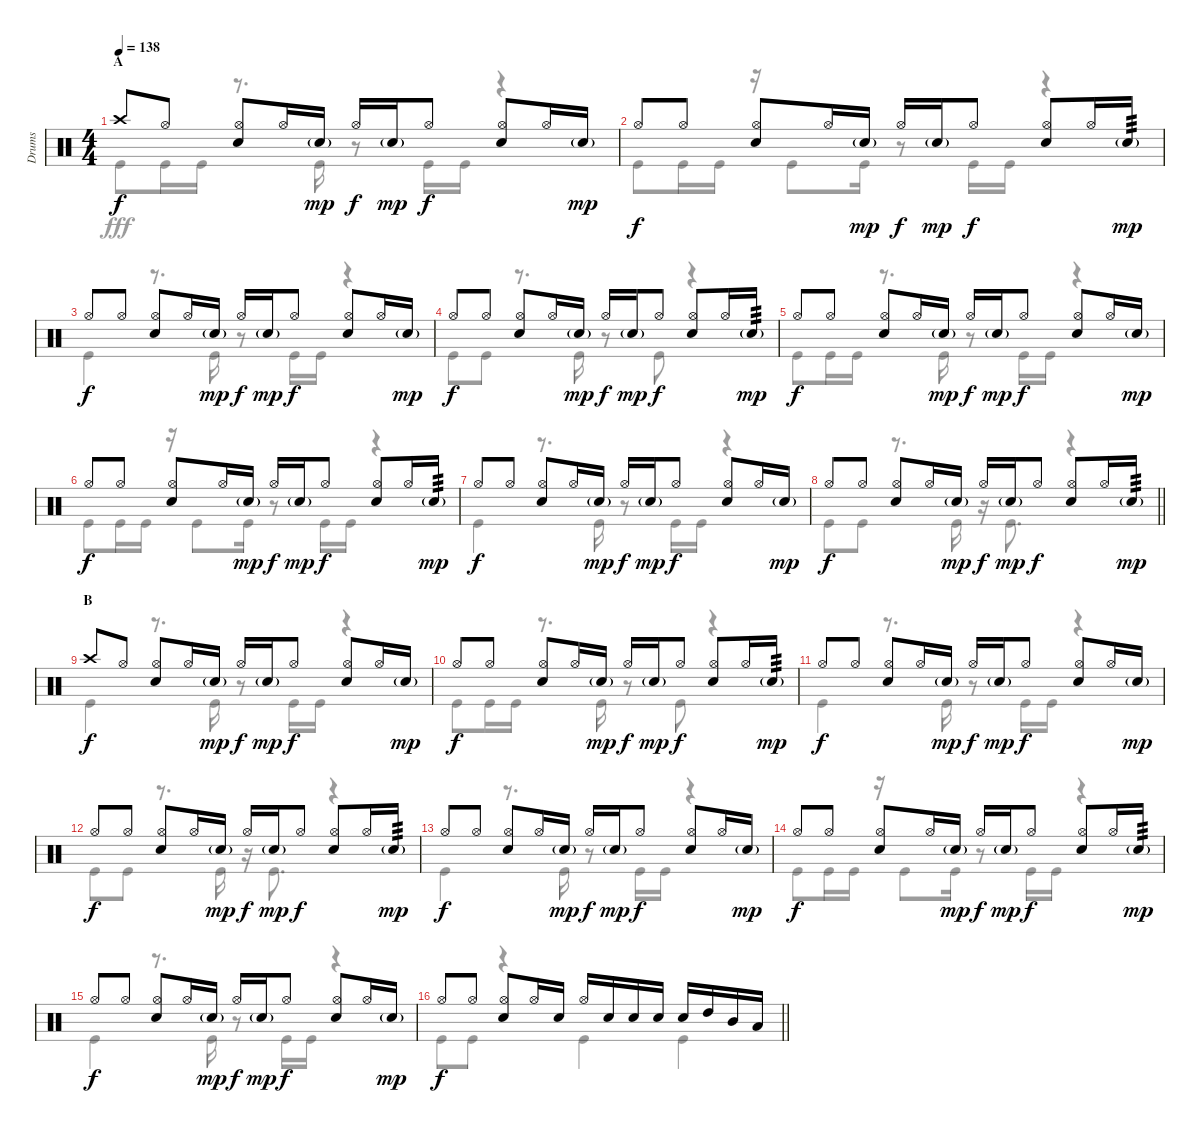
\track ("Drums" "Drums") {instrument percussion}
\staff {score}
\articulation defaults
\voice
\ts (4 4)
\section ("" "A")
\tempo 138
\clef neutral
\ks c "Crash high (hit)".8{dy f} "Hi-Hat (open)".8
("Hi-Hat (open)" "Snare (hit) 2").8 "Hi-Hat (open)".16 "Snare (hit) 2"{g}.16{dy mp} "Hi-Hat (open)".16{dy f} "Snare (hit) 2"{g}.16{dy mp} "Hi-Hat (open)".8{dy f} ("Hi-Hat (open)" "Snare (hit) 2").8 "Hi-Hat (open)".16 "Snare (hit) 2"{g}.16{dy mp} |
"Hi-Hat (open)".8{dy f} "Hi-Hat (open)".8 ("Hi-Hat (open)" "Snare (hit) 2").8 "Hi-Hat (open)".16 "Snare (hit) 2"{g}.16{dy mp} "Hi-Hat (open)".16{dy f} "Snare (hit) 2"{g}.16{dy mp} "Hi-Hat (open)".8{dy f} ("Hi-Hat (open)" "Snare (hit) 2").8 "Hi-Hat (open)".16 "Snare (hit) 2"{g}.16{tp 3 dy mp} |
"Hi-Hat (open)".8{dy f} "Hi-Hat (open)".8 ("Hi-Hat (open)" "Snare (hit) 2").8 "Hi-Hat (open)".16 "Snare (hit) 2"{g}.16{dy mp} "Hi-Hat (open)".16{dy f} "Snare (hit) 2"{g}.16{dy mp} "Hi-Hat (open)".8{dy f} ("Hi-Hat (open)" "Snare (hit) 2").8 "Hi-Hat (open)".16 "Snare (hit) 2"{g}.16{dy mp} |
"Hi-Hat (open)".8{dy f} "Hi-Hat (open)".8 ("Hi-Hat (open)" "Snare (hit) 2").8 "Hi-Hat (open)".16 "Snare (hit) 2"{g}.16{dy mp} "Hi-Hat (open)".16{dy f} "Snare (hit) 2"{g}.16{dy mp} "Hi-Hat (open)".8{dy f} ("Hi-Hat (open)" "Snare (hit) 2").8 "Hi-Hat (open)".16 "Snare (hit) 2"{g}.16{tp 3 dy mp} |
"Hi-Hat (open)".8{dy f} "Hi-Hat (open)".8 ("Hi-Hat (open)" "Snare (hit) 2").8 "Hi-Hat (open)".16 "Snare (hit) 2"{g}.16{dy mp} "Hi-Hat (open)".16{dy f} "Snare (hit) 2"{g}.16{dy mp} "Hi-Hat (open)".8{dy f} ("Hi-Hat (open)" "Snare (hit) 2").8 "Hi-Hat (open)".16 "Snare (hit) 2"{g}.16{dy mp} |
"Hi-Hat (open)".8{dy f} "Hi-Hat (open)".8 ("Hi-Hat (open)" "Snare (hit) 2").8 "Hi-Hat (open)".16 "Snare (hit) 2"{g}.16{dy mp} "Hi-Hat (open)".16{dy f} "Snare (hit) 2"{g}.16{dy mp} "Hi-Hat (open)".8{dy f} ("Hi-Hat (open)" "Snare (hit) 2").8 "Hi-Hat (open)".16 "Snare (hit) 2"{g}.16{tp 3 dy mp} |
"Hi-Hat (open)".8{dy f} "Hi-Hat (open)".8 ("Hi-Hat (open)" "Snare (hit) 2").8 "Hi-Hat (open)".16 "Snare (hit) 2"{g}.16{dy mp} "Hi-Hat (open)".16{dy f} "Snare (hit) 2"{g}.16{dy mp} "Hi-Hat (open)".8{dy f} ("Hi-Hat (open)" "Snare (hit) 2").8 "Hi-Hat (open)".16 "Snare (hit) 2"{g}.16{dy mp} |
\barLineRight lightlight "Hi-Hat (open)".8{dy f} "Hi-Hat (open)".8
("Hi-Hat (open)" "Snare (hit) 2").8 "Hi-Hat (open)".16 "Snare (hit) 2"{g}.16{dy mp} "Hi-Hat (open)".16{dy f} "Snare (hit) 2"{g}.16{dy mp} "Hi-Hat (open)".8{dy f} ("Hi-Hat (open)" "Snare (hit) 2").8 "Hi-Hat (open)".16 "Snare (hit) 2"{g}.16{tp 3 dy mp} |
\section ("" "B")
"Crash high (hit)".8{dy f} "Hi-Hat (open)".8 ("Hi-Hat (open)" "Snare (hit) 2").8 "Hi-Hat (open)".16 "Snare (hit) 2"{g}.16{dy mp} "Hi-Hat (open)".16{dy f} "Snare (hit) 2"{g}.16{dy mp} "Hi-Hat (open)".8{dy f} ("Hi-Hat (open)" "Snare (hit) 2").8 "Hi-Hat (open)".16 "Snare (hit) 2"{g}.16{dy mp} |
"Hi-Hat (open)".8{dy f} "Hi-Hat (open)".8 ("Hi-Hat (open)" "Snare (hit) 2").8 "Hi-Hat (open)".16 "Snare (hit) 2"{g}.16{dy mp} "Hi-Hat (open)".16{dy f} "Snare (hit) 2"{g}.16{dy mp} "Hi-Hat (open)".8{dy f} ("Hi-Hat (open)" "Snare (hit) 2").8 "Hi-Hat (open)".16 "Snare (hit) 2"{g}.16{tp 3 dy mp} |
"Hi-Hat (open)".8{dy f} "Hi-Hat (open)".8 ("Hi-Hat (open)" "Snare (hit) 2").8 "Hi-Hat (open)".16 "Snare (hit) 2"{g}.16{dy mp} "Hi-Hat (open)".16{dy f} "Snare (hit) 2"{g}.16{dy mp} "Hi-Hat (open)".8{dy f} ("Hi-Hat (open)" "Snare (hit) 2").8 "Hi-Hat (open)".16 "Snare (hit) 2"{g}.16{dy mp} |
"Hi-Hat (open)".8{dy f} "Hi-Hat (open)".8 ("Hi-Hat (open)" "Snare (hit) 2").8 "Hi-Hat (open)".16 "Snare (hit) 2"{g}.16{dy mp} "Hi-Hat (open)".16{dy f} "Snare (hit) 2"{g}.16{dy mp} "Hi-Hat (open)".8{dy f} ("Hi-Hat (open)" "Snare (hit) 2").8 "Hi-Hat (open)".16 "Snare (hit) 2"{g}.16{tp 3 dy mp} |
"Hi-Hat (open)".8{dy f} "Hi-Hat (open)".8 ("Hi-Hat (open)" "Snare (hit) 2").8 "Hi-Hat (open)".16 "Snare (hit) 2"{g}.16{dy mp} "Hi-Hat (open)".16{dy f} "Snare (hit) 2"{g}.16{dy mp} "Hi-Hat (open)".8{dy f} ("Hi-Hat (open)" "Snare (hit) 2").8 "Hi-Hat (open)".16 "Snare (hit) 2"{g}.16{dy mp} |
"Hi-Hat (open)".8{dy f} "Hi-Hat (open)".8 ("Hi-Hat (open)" "Snare (hit) 2").8 "Hi-Hat (open)".16 "Snare (hit) 2"{g}.16{dy mp} "Hi-Hat (open)".16{dy f} "Snare (hit) 2"{g}.16{dy mp} "Hi-Hat (open)".8{dy f} ("Hi-Hat (open)" "Snare (hit) 2").8 "Hi-Hat (open)".16 "Snare (hit) 2"{g}.16{tp 3 dy mp} |
"Hi-Hat (open)".8{dy f} "Hi-Hat (open)".8 ("Hi-Hat (open)" "Snare (hit) 2").8 "Hi-Hat (open)".16 "Snare (hit) 2"{g}.16{dy mp} "Hi-Hat (open)".16{dy f} "Snare (hit) 2"{g}.16{dy mp} "Hi-Hat (open)".8{dy f} ("Hi-Hat (open)" "Snare (hit) 2").8 "Hi-Hat (open)".16 "Snare (hit) 2"{g}.16{dy mp} |
\barLineRight lightlight "Hi-Hat (open)".8{dy f} "Hi-Hat (open)".8
("Hi-Hat (open)" "Snare (hit) 2").8 "Hi-Hat (open)".16 "Snare (hit) 2".16 "Hi-Hat (open)".16 "Snare (hit) 2".16 "Snare (hit) 2".16 "Snare (hit) 2".16 "Snare (hit) 2".16 "High Tom (hit)".16 "Mid Tom (hit)".16 "Low Tom (hit)".16
\voice
\clef neutral
\ottava regular
\simile none
\ks c "Kick (hit)".8{dy fff} "Kick (hit)".16 "Kick (hit)".16
r.8{d} "Kick (hit)".16 r.8 "Kick (hit)".16 "Kick (hit)".16 r.4 |
"Kick (hit)".8 "Kick (hit)".16 "Kick (hit)".16 r.16 "Kick (hit)".8 "Kick (hit)".16 r.8 "Kick (hit)".16 "Kick (hit)".16 r.4 |
"Kick (hit)".4 r.8{d} "Kick (hit)".16 r.8 "Kick (hit)".16 "Kick (hit)".16 r.4 |
"Kick (hit)".8 "Kick (hit)".8 r.8{d} "Kick (hit)".16 r.8 "Kick (hit)".8 r.4 |
"Kick (hit)".8 "Kick (hit)".16 "Kick (hit)".16 r.8{d} "Kick (hit)".16 r.8 "Kick (hit)".16 "Kick (hit)".16 r.4 |
"Kick (hit)".8 "Kick (hit)".16 "Kick (hit)".16 r.16 "Kick (hit)".8 "Kick (hit)".16 r.8 "Kick (hit)".16 "Kick (hit)".16 r.4 |
"Kick (hit)".4 r.8{d} "Kick (hit)".16 r.8 "Kick (hit)".16 "Kick (hit)".16 r.4 |
\barLineRight lightlight "Kick (hit)".8 "Kick (hit)".8
r.8{d} "Kick (hit)".16 r.16 "Kick (hit)".8{d} r.4 |
"Kick (hit)".4 r.8{d} "Kick (hit)".16 r.8 "Kick (hit)".16 "Kick (hit)".16 r.4 |
"Kick (hit)".8 "Kick (hit)".16 "Kick (hit)".16 r.8{d} "Kick (hit)".16 r.8 "Kick (hit)".8 r.4 |
"Kick (hit)".4 r.8{d} "Kick (hit)".16 r.8 "Kick (hit)".16 "Kick (hit)".16 r.4 |
"Kick (hit)".8 "Kick (hit)".8 r.8{d} "Kick (hit)".16 r.16 "Kick (hit)".8{d} r.4 |
"Kick (hit)".4 r.8{d} "Kick (hit)".16 r.8 "Kick (hit)".16 "Kick (hit)".16 r.4 |
"Kick (hit)".8 "Kick (hit)".16 "Kick (hit)".16 r.16 "Kick (hit)".8 "Kick (hit)".16 r.8 "Kick (hit)".16 "Kick (hit)".16 r.4 |
"Kick (hit)".4 r.8{d} "Kick (hit)".16 r.8 "Kick (hit)".16 "Kick (hit)".16 r.4 |
\barLineRight lightlight "Kick (hit)".8 "Kick (hit)".8
r.4 "Kick (hit)".4 "Kick (hit)".4
